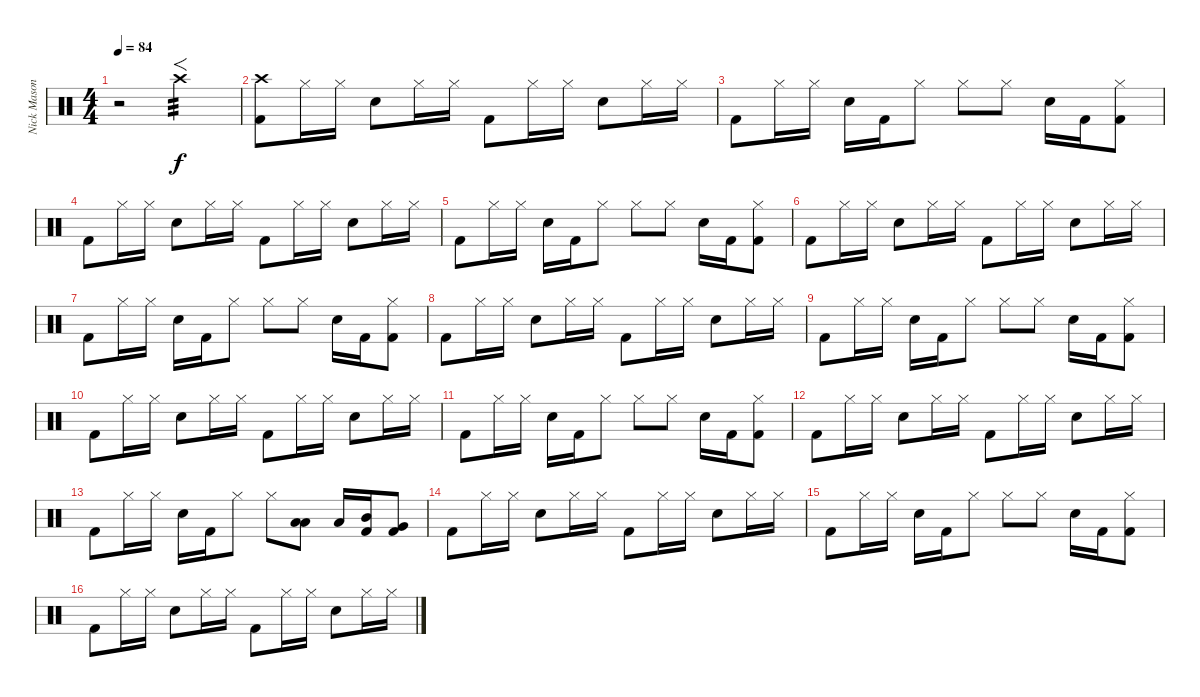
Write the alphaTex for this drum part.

\track ("Nick Mason" "Nick Mason") {instrument percussion}
\staff {score}
\articulation defaults
\ts (4 4)
\tempo 84
\clef neutral
\ks c
r.2{dy f} "Crash high (hit)".2{f tp 3} |
("Crash high (hit)" "Kick (hit) 2").8 "Hi-Hat (closed)".16 "Hi-Hat (closed)".16 "Snare (hit) 2".8 "Hi-Hat (closed)".16 "Hi-Hat (closed)".16 "Kick (hit) 2".8 "Hi-Hat (closed)".16 "Hi-Hat (closed)".16 "Snare (hit) 2".8 "Hi-Hat (closed)".16 "Hi-Hat (closed)".16 |
"Kick (hit) 2".8 "Hi-Hat (closed)".16 "Hi-Hat (closed)".16 "Snare (hit) 2".16 "Kick (hit) 2".16 "Hi-Hat (closed)".8 "Hi-Hat (closed)".8 "Hi-Hat (closed)".8 "Snare (hit) 2".16 "Kick (hit) 2".16 ("Hi-Hat (closed)" "Kick (hit) 2").8 |
"Kick (hit) 2".8 "Hi-Hat (closed)".16 "Hi-Hat (closed)".16 "Snare (hit) 2".8 "Hi-Hat (closed)".16 "Hi-Hat (closed)".16 "Kick (hit) 2".8 "Hi-Hat (closed)".16 "Hi-Hat (closed)".16 "Snare (hit) 2".8 "Hi-Hat (closed)".16 "Hi-Hat (closed)".16 |
"Kick (hit) 2".8 "Hi-Hat (closed)".16 "Hi-Hat (closed)".16 "Snare (hit) 2".16 "Kick (hit) 2".16 "Hi-Hat (closed)".8 "Hi-Hat (closed)".8 "Hi-Hat (closed)".8 "Snare (hit) 2".16 "Kick (hit) 2".16 ("Hi-Hat (closed)" "Kick (hit) 2").8 |
"Kick (hit) 2".8 "Hi-Hat (closed)".16 "Hi-Hat (closed)".16 "Snare (hit) 2".8 "Hi-Hat (closed)".16 "Hi-Hat (closed)".16 "Kick (hit) 2".8 "Hi-Hat (closed)".16 "Hi-Hat (closed)".16 "Snare (hit) 2".8 "Hi-Hat (closed)".16 "Hi-Hat (closed)".16 |
"Kick (hit) 2".8 "Hi-Hat (closed)".16 "Hi-Hat (closed)".16 "Snare (hit) 2".16 "Kick (hit) 2".16 "Hi-Hat (closed)".8 "Hi-Hat (closed)".8 "Hi-Hat (closed)".8 "Snare (hit) 2".16 "Kick (hit) 2".16 ("Hi-Hat (closed)" "Kick (hit) 2").8 |
"Kick (hit) 2".8 "Hi-Hat (closed)".16 "Hi-Hat (closed)".16 "Snare (hit) 2".8 "Hi-Hat (closed)".16 "Hi-Hat (closed)".16 "Kick (hit) 2".8 "Hi-Hat (closed)".16 "Hi-Hat (closed)".16 "Snare (hit) 2".8 "Hi-Hat (closed)".16 "Hi-Hat (closed)".16 |
"Kick (hit) 2".8 "Hi-Hat (closed)".16 "Hi-Hat (closed)".16 "Snare (hit) 2".16 "Kick (hit) 2".16 "Hi-Hat (closed)".8 "Hi-Hat (closed)".8 "Hi-Hat (closed)".8 "Snare (hit) 2".16 "Kick (hit) 2".16 ("Hi-Hat (closed)" "Kick (hit) 2").8 |
"Kick (hit) 2".8 "Hi-Hat (closed)".16 "Hi-Hat (closed)".16 "Snare (hit) 2".8 "Hi-Hat (closed)".16 "Hi-Hat (closed)".16 "Kick (hit) 2".8 "Hi-Hat (closed)".16 "Hi-Hat (closed)".16 "Snare (hit) 2".8 "Hi-Hat (closed)".16 "Hi-Hat (closed)".16 |
"Kick (hit) 2".8 "Hi-Hat (closed)".16 "Hi-Hat (closed)".16 "Snare (hit) 2".16 "Kick (hit) 2".16 "Hi-Hat (closed)".8 "Hi-Hat (closed)".8 "Hi-Hat (closed)".8 "Snare (hit) 2".16 "Kick (hit) 2".16 ("Hi-Hat (closed)" "Kick (hit) 2").8 |
"Kick (hit) 2".8 "Hi-Hat (closed)".16 "Hi-Hat (closed)".16 "Snare (hit) 2".8 "Hi-Hat (closed)".16 "Hi-Hat (closed)".16 "Kick (hit) 2".8 "Hi-Hat (closed)".16 "Hi-Hat (closed)".16 "Snare (hit) 2".8 "Hi-Hat (closed)".16 "Hi-Hat (closed)".16 |
"Kick (hit) 2".8 "Hi-Hat (closed)".16 "Hi-Hat (closed)".16 "Snare (hit) 2".16 "Kick (hit) 2".16 "Hi-Hat (closed)".8 "Hi-Hat (closed)".8 ("Low Tom (hit)" "Low Tom (hit)").8 "Low Tom (hit)".16 ("Mid Tom (hit)" "Kick (hit) 2").16 ("Very Low Tom (hit)" "Kick (hit) 2").8 |
"Kick (hit) 2".8 "Hi-Hat (closed)".16 "Hi-Hat (closed)".16 "Snare (hit) 2".8 "Hi-Hat (closed)".16 "Hi-Hat (closed)".16 "Kick (hit) 2".8 "Hi-Hat (closed)".16 "Hi-Hat (closed)".16 "Snare (hit) 2".8 "Hi-Hat (closed)".16 "Hi-Hat (closed)".16 |
"Kick (hit) 2".8 "Hi-Hat (closed)".16 "Hi-Hat (closed)".16 "Snare (hit) 2".16 "Kick (hit) 2".16 "Hi-Hat (closed)".8 "Hi-Hat (closed)".8 "Hi-Hat (closed)".8 "Snare (hit) 2".16 "Kick (hit) 2".16 ("Hi-Hat (closed)" "Kick (hit) 2").8 |
"Kick (hit) 2".8 "Hi-Hat (closed)".16 "Hi-Hat (closed)".16 "Snare (hit) 2".8 "Hi-Hat (closed)".16 "Hi-Hat (closed)".16 "Kick (hit) 2".8 "Hi-Hat (closed)".16 "Hi-Hat (closed)".16 "Snare (hit) 2".8 "Hi-Hat (closed)".16 "Hi-Hat (closed)".16
